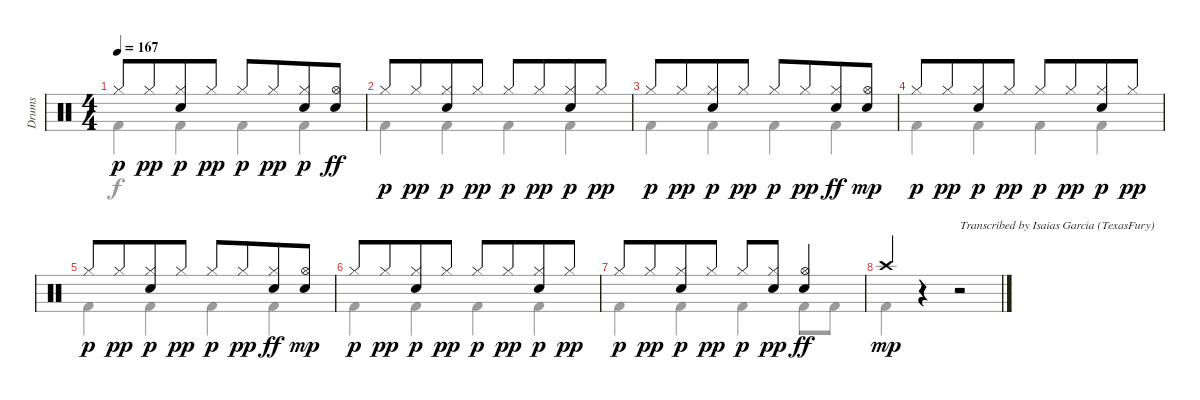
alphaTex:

\track ("Drums" "Drums") {instrument percussion}
\staff {score}
\articulation defaults
\voice
\ts (4 4)
\tempo 167
\clef neutral
\ks aminor "Hi-Hat (closed)".8{dy p} "Hi-Hat (closed)".8{dy pp beam merge}
("Hi-Hat (closed)" "Electric Snare (hit)").8{dy p} "Hi-Hat (closed)".8{dy pp} "Hi-Hat (closed)".8{dy p} "Hi-Hat (closed)".8{dy pp beam merge} ("Hi-Hat (closed)" "Electric Snare (hit)").8{dy p} ("Hi-Hat (open)" "Electric Snare (hit)").8{dy ff} |
"Hi-Hat (closed)".8{dy p} "Hi-Hat (closed)".8{dy pp beam merge} ("Hi-Hat (closed)" "Electric Snare (hit)").8{dy p} "Hi-Hat (closed)".8{dy pp} "Hi-Hat (closed)".8{dy p} "Hi-Hat (closed)".8{dy pp beam merge} ("Hi-Hat (closed)" "Electric Snare (hit)").8{dy p} "Hi-Hat (closed)".8{dy pp} |
"Hi-Hat (closed)".8{dy p} "Hi-Hat (closed)".8{dy pp beam merge} ("Hi-Hat (closed)" "Electric Snare (hit)").8{dy p} "Hi-Hat (closed)".8{dy pp} "Hi-Hat (closed)".8{dy p} "Hi-Hat (closed)".8{dy pp beam merge} ("Hi-Hat (closed)" "Electric Snare (hit)").8{dy ff} ("Hi-Hat (open)" "Electric Snare (hit)").8{dy mp} |
"Hi-Hat (closed)".8{dy p} "Hi-Hat (closed)".8{dy pp beam merge} ("Hi-Hat (closed)" "Electric Snare (hit)").8{dy p} "Hi-Hat (closed)".8{dy pp} "Hi-Hat (closed)".8{dy p} "Hi-Hat (closed)".8{dy pp beam merge} ("Hi-Hat (closed)" "Electric Snare (hit)").8{dy p} "Hi-Hat (closed)".8{dy pp} |
"Hi-Hat (closed)".8{dy p} "Hi-Hat (closed)".8{dy pp beam merge} ("Hi-Hat (closed)" "Electric Snare (hit)").8{dy p} "Hi-Hat (closed)".8{dy pp} "Hi-Hat (closed)".8{dy p} "Hi-Hat (closed)".8{dy pp beam merge} ("Hi-Hat (closed)" "Electric Snare (hit)").8{dy ff} ("Hi-Hat (open)" "Electric Snare (hit)").8{dy mp} |
"Hi-Hat (closed)".8{dy p} "Hi-Hat (closed)".8{dy pp beam merge} ("Hi-Hat (closed)" "Electric Snare (hit)").8{dy p} "Hi-Hat (closed)".8{dy pp} "Hi-Hat (closed)".8{dy p} "Hi-Hat (closed)".8{dy pp beam merge} ("Hi-Hat (closed)" "Electric Snare (hit)").8{dy p} "Hi-Hat (closed)".8{dy pp} |
"Hi-Hat (closed)".8{dy p} "Hi-Hat (closed)".8{dy pp beam merge} ("Hi-Hat (closed)" "Electric Snare (hit)").8{dy p} "Hi-Hat (closed)".8{dy pp} "Hi-Hat (closed)".8{dy p} ("Hi-Hat (closed)" "Electric Snare (hit)").8{dy pp} ("Hi-Hat (open)" "Electric Snare (hit)").4{dy ff} |
"Crash high (hit)".4{dy mp volume 0} r.4 r.2{txt "Transcribed by Isaias Garcia (TexasFury)"}
\voice
\clef neutral
\ottava regular
\simile none
\ks aminor "Kick (hit) 2".4{dy f} "Kick (hit) 2".4 "Kick (hit) 2".4 "Kick (hit) 2".4
|
"Kick (hit) 2".4 "Kick (hit) 2".4 "Kick (hit) 2".4 "Kick (hit) 2".4 |
"Kick (hit) 2".4 "Kick (hit) 2".4 "Kick (hit) 2".4 "Kick (hit) 2".4 |
"Kick (hit) 2".4 "Kick (hit) 2".4 "Kick (hit) 2".4 "Kick (hit) 2".4 |
"Kick (hit) 2".4 "Kick (hit) 2".4 "Kick (hit) 2".4 "Kick (hit) 2".4 |
"Kick (hit) 2".4 "Kick (hit) 2".4 "Kick (hit) 2".4 "Kick (hit) 2".4 |
"Kick (hit) 2".4 "Kick (hit) 2".4 "Kick (hit) 2".4 "Kick (hit) 2".8 "Kick (hit) 2".8 |
"Kick (hit) 2".4 r.4 r.2
